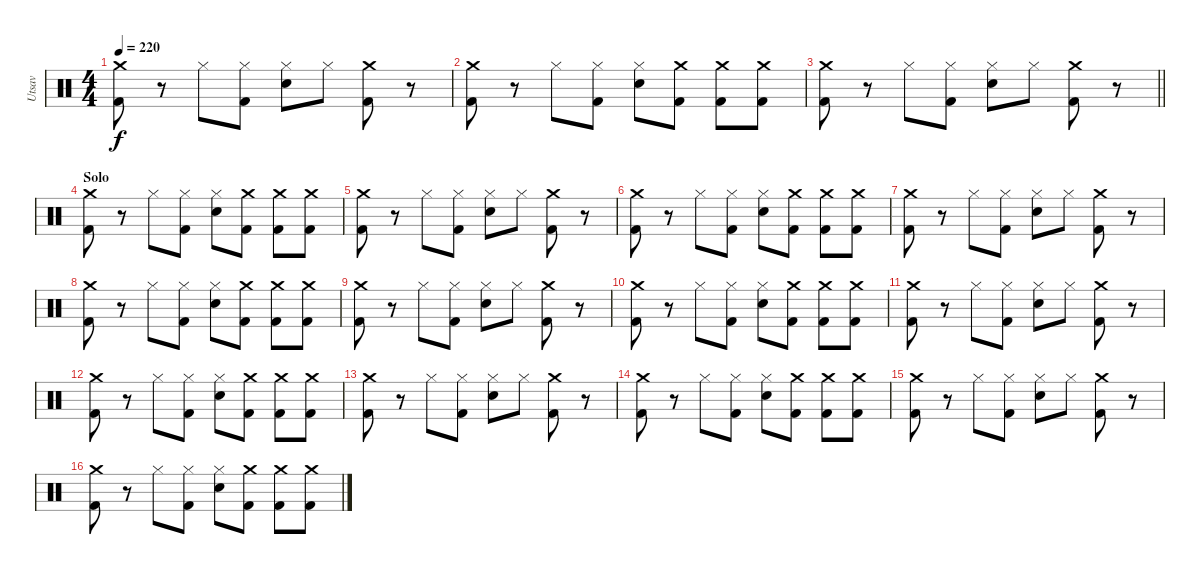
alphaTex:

\track ("Utsav" "Utsav") {instrument percussion}
\staff {score}
\articulation defaults
\ts (4 4)
\tempo 220
\clef neutral
\ks c
("Crash medium (hit)" "Kick (hit) 2").8{dy f} r.8 "Hi-Hat (closed)".8 ("Hi-Hat (closed)" "Kick (hit) 2").8 ("Hi-Hat (closed)" "Snare (hit) 2").8 "Hi-Hat (closed)".8 ("Crash medium (hit)" "Kick (hit) 2").8 r.8 |
("Crash medium (hit)" "Kick (hit) 2").8 r.8 "Hi-Hat (closed)".8 ("Hi-Hat (closed)" "Kick (hit) 2").8 ("Hi-Hat (closed)" "Snare (hit) 2").8 ("Crash medium (hit)" "Kick (hit) 2").8 ("Crash medium (hit)" "Kick (hit) 2").8 ("Crash medium (hit)" "Kick (hit) 2").8 |
\barLineRight lightlight
("Crash medium (hit)" "Kick (hit) 2").8 r.8 "Hi-Hat (closed)".8 ("Hi-Hat (closed)" "Kick (hit) 2").8 ("Hi-Hat (closed)" "Snare (hit) 2").8 "Hi-Hat (closed)".8 ("Crash medium (hit)" "Kick (hit) 2").8 r.8 |
\section ("" "Solo")
("Crash medium (hit)" "Kick (hit) 2").8 r.8 "Hi-Hat (closed)".8 ("Hi-Hat (closed)" "Kick (hit) 2").8 ("Hi-Hat (closed)" "Snare (hit) 2").8 ("Crash medium (hit)" "Kick (hit) 2").8 ("Crash medium (hit)" "Kick (hit) 2").8 ("Crash medium (hit)" "Kick (hit) 2").8 |
("Crash medium (hit)" "Kick (hit) 2").8 r.8 "Hi-Hat (closed)".8 ("Hi-Hat (closed)" "Kick (hit) 2").8 ("Hi-Hat (closed)" "Snare (hit) 2").8 "Hi-Hat (closed)".8 ("Crash medium (hit)" "Kick (hit) 2").8 r.8 |
("Crash medium (hit)" "Kick (hit) 2").8 r.8 "Hi-Hat (closed)".8 ("Hi-Hat (closed)" "Kick (hit) 2").8 ("Hi-Hat (closed)" "Snare (hit) 2").8 ("Crash medium (hit)" "Kick (hit) 2").8 ("Crash medium (hit)" "Kick (hit) 2").8 ("Crash medium (hit)" "Kick (hit) 2").8 |
("Crash medium (hit)" "Kick (hit) 2").8 r.8 "Hi-Hat (closed)".8 ("Hi-Hat (closed)" "Kick (hit) 2").8 ("Hi-Hat (closed)" "Snare (hit) 2").8 "Hi-Hat (closed)".8 ("Crash medium (hit)" "Kick (hit) 2").8 r.8 |
("Crash medium (hit)" "Kick (hit) 2").8 r.8 "Hi-Hat (closed)".8 ("Hi-Hat (closed)" "Kick (hit) 2").8 ("Hi-Hat (closed)" "Snare (hit) 2").8 ("Crash medium (hit)" "Kick (hit) 2").8 ("Crash medium (hit)" "Kick (hit) 2").8 ("Crash medium (hit)" "Kick (hit) 2").8 |
("Crash medium (hit)" "Kick (hit) 2").8 r.8 "Hi-Hat (closed)".8 ("Hi-Hat (closed)" "Kick (hit) 2").8 ("Hi-Hat (closed)" "Snare (hit) 2").8 "Hi-Hat (closed)".8 ("Crash medium (hit)" "Kick (hit) 2").8 r.8 |
("Crash medium (hit)" "Kick (hit) 2").8 r.8 "Hi-Hat (closed)".8 ("Hi-Hat (closed)" "Kick (hit) 2").8 ("Hi-Hat (closed)" "Snare (hit) 2").8 ("Crash medium (hit)" "Kick (hit) 2").8 ("Crash medium (hit)" "Kick (hit) 2").8 ("Crash medium (hit)" "Kick (hit) 2").8 |
("Crash medium (hit)" "Kick (hit) 2").8 r.8 "Hi-Hat (closed)".8 ("Hi-Hat (closed)" "Kick (hit) 2").8 ("Hi-Hat (closed)" "Snare (hit) 2").8 "Hi-Hat (closed)".8 ("Crash medium (hit)" "Kick (hit) 2").8 r.8 |
("Crash medium (hit)" "Kick (hit) 2").8 r.8 "Hi-Hat (closed)".8 ("Hi-Hat (closed)" "Kick (hit) 2").8 ("Hi-Hat (closed)" "Snare (hit) 2").8 ("Crash medium (hit)" "Kick (hit) 2").8 ("Crash medium (hit)" "Kick (hit) 2").8 ("Crash medium (hit)" "Kick (hit) 2").8 |
("Crash medium (hit)" "Kick (hit) 2").8 r.8 "Hi-Hat (closed)".8 ("Hi-Hat (closed)" "Kick (hit) 2").8 ("Hi-Hat (closed)" "Snare (hit) 2").8 "Hi-Hat (closed)".8 ("Crash medium (hit)" "Kick (hit) 2").8 r.8 |
("Crash medium (hit)" "Kick (hit) 2").8 r.8 "Hi-Hat (closed)".8 ("Hi-Hat (closed)" "Kick (hit) 2").8 ("Hi-Hat (closed)" "Snare (hit) 2").8 ("Crash medium (hit)" "Kick (hit) 2").8 ("Crash medium (hit)" "Kick (hit) 2").8 ("Crash medium (hit)" "Kick (hit) 2").8 |
("Crash medium (hit)" "Kick (hit) 2").8 r.8 "Hi-Hat (closed)".8 ("Hi-Hat (closed)" "Kick (hit) 2").8 ("Hi-Hat (closed)" "Snare (hit) 2").8 "Hi-Hat (closed)".8 ("Crash medium (hit)" "Kick (hit) 2").8 r.8 |
("Crash medium (hit)" "Kick (hit) 2").8 r.8 "Hi-Hat (closed)".8 ("Hi-Hat (closed)" "Kick (hit) 2").8 ("Hi-Hat (closed)" "Snare (hit) 2").8 ("Crash medium (hit)" "Kick (hit) 2").8 ("Crash medium (hit)" "Kick (hit) 2").8 ("Crash medium (hit)" "Kick (hit) 2").8
